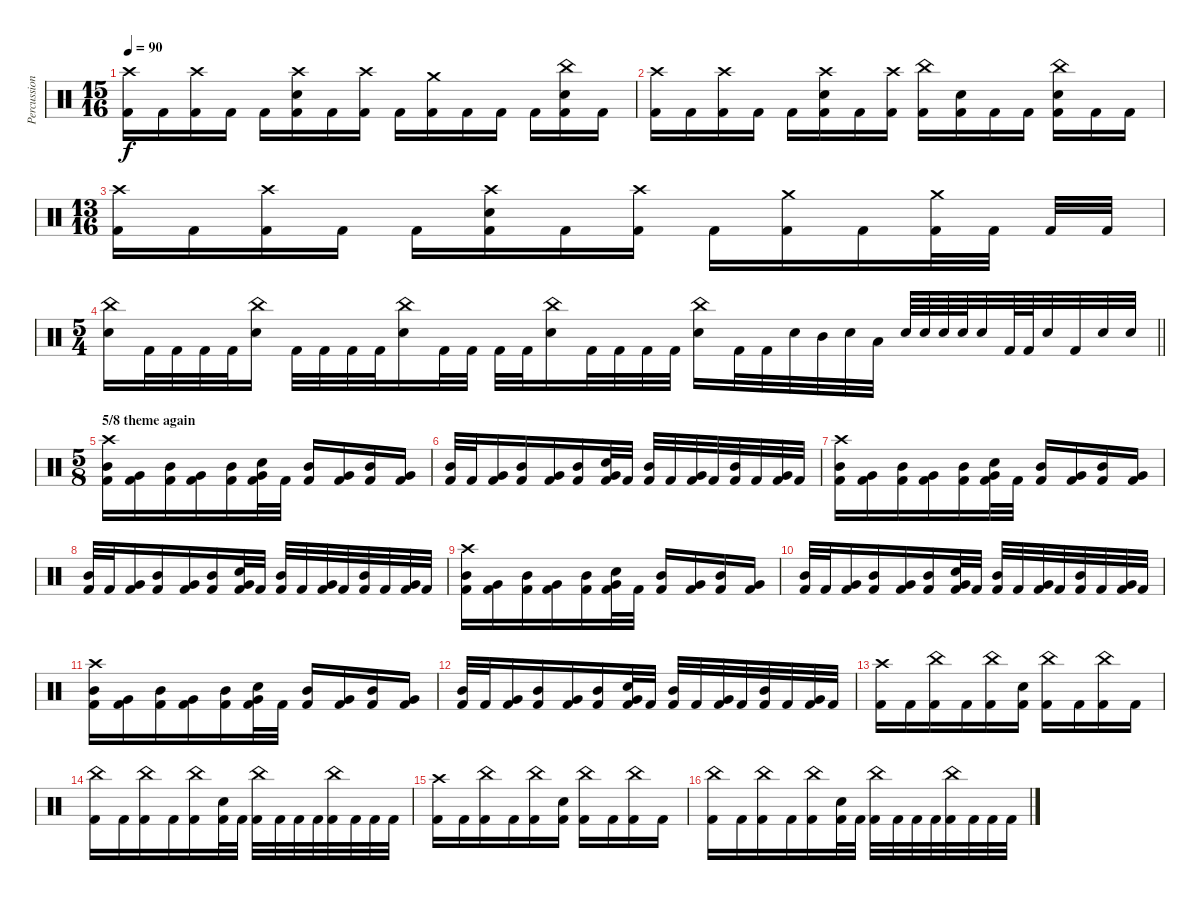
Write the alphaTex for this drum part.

\track ("Percussion" "Percussion") {instrument percussion}
\staff {score}
\articulation defaults
\ts (15 16)
\tempo 90
\clef neutral
\ks c
("Crash high (hit)" "Kick (hit) 2").16{dy f} "Kick (hit) 2".16 ("Crash high (hit)" "Kick (hit) 2").16 "Kick (hit) 2".16 "Kick (hit) 2".16 ("Crash high (hit)" "Electric Snare (hit)" "Kick (hit) 2").16 "Kick (hit) 2".16 ("Crash high (hit)" "Kick (hit) 2").16 "Kick (hit) 2".16 ("Crash medium (hit)" "Kick (hit) 2").16 "Kick (hit) 2".16 "Kick (hit) 2".16 "Kick (hit) 2".16 ("China (hit)" "Electric Snare (hit)" "Kick (hit) 2").16 "Kick (hit) 2".16 |
("Crash high (hit)" "Kick (hit) 2").16 "Kick (hit) 2".16 ("Crash high (hit)" "Kick (hit) 2").16 "Kick (hit) 2".16 "Kick (hit) 2".16 ("Crash high (hit)" "Electric Snare (hit)" "Kick (hit) 2").16 "Kick (hit) 2".16 ("Crash high (hit)" "Kick (hit) 2").16 ("China (hit)" "Kick (hit) 2").16 ("Electric Snare (hit)" "Kick (hit) 2").16 "Kick (hit) 2".16 "Kick (hit) 2".16 ("China (hit)" "Electric Snare (hit)" "Kick (hit) 2").16 "Kick (hit) 2".16 "Kick (hit) 2".16 |
\ts (13 16)
("Crash high (hit)" "Kick (hit) 2").16 "Kick (hit) 2".16 ("Crash high (hit)" "Kick (hit) 2").16 "Kick (hit) 2".16 "Kick (hit) 2".16 ("Crash high (hit)" "Electric Snare (hit)" "Kick (hit) 2").16 "Kick (hit) 2".16 ("Crash high (hit)" "Kick (hit) 2").16 "Kick (hit) 2".16 ("Crash medium (hit)" "Kick (hit) 2").16 "Kick (hit) 2".16 ("Crash medium (hit)" "Kick (hit) 2").32 "Kick (hit) 2".32 "Kick (hit) 2".32 "Kick (hit) 2".32 |
\ts (5 4)
\barLineRight lightlight
("China (hit)" "Electric Snare (hit)").16 "Kick (hit) 2".32 "Kick (hit) 2".32 "Kick (hit) 2".32 "Kick (hit) 2".32 ("China (hit)" "Electric Snare (hit)").16 "Kick (hit) 2".32 "Kick (hit) 2".32 "Kick (hit) 2".32 "Kick (hit) 2".32 ("China (hit)" "Electric Snare (hit)").16 "Kick (hit) 2".32 "Kick (hit) 2".32 "Kick (hit) 2".32 "Kick (hit) 2".32 ("China (hit)" "Electric Snare (hit)").16 "Kick (hit) 2".32 "Kick (hit) 2".32 "Kick (hit) 2".32 "Kick (hit) 2".32 ("China (hit)" "Electric Snare (hit)").16 "Kick (hit) 2".32 "Kick (hit) 2".32 "Electric Snare (hit)".32 "Mid Tom (hit)".32 "Electric Snare (hit)".32 "Low Tom (hit)".32 "Electric Snare (hit)".64 "Electric Snare (hit)".64 "Electric Snare (hit)".64 "Electric Snare (hit)".64 "Electric Snare (hit)".32 "Kick (hit) 2".64 "Kick (hit) 2".64 "Electric Snare (hit)".32 "Kick (hit) 2".32 "Electric Snare (hit)".32 "Electric Snare (hit)".32 |
\ts (5 8)
\section ("" "5/8 theme again")
("Crash high (hit)" "Mid Tom (hit)" "Kick (hit) 2").16 ("Very Low Tom (hit)" "Kick (hit) 2").16 ("Mid Tom (hit)" "Kick (hit) 2").16 ("Very Low Tom (hit)" "Kick (hit) 2").16 ("Mid Tom (hit)" "Kick (hit) 2").16 ("Very Low Tom (hit)" "Electric Snare (hit)" "Kick (hit) 2").32 "Kick (hit) 2".32 ("Mid Tom (hit)" "Kick (hit) 2").16 ("Very Low Tom (hit)" "Kick (hit) 2").16 ("Mid Tom (hit)" "Kick (hit) 2").16 ("Very Low Tom (hit)" "Kick (hit) 2").16 |
("Mid Tom (hit)" "Kick (hit) 2").32 "Kick (hit) 2".32 ("Very Low Tom (hit)" "Kick (hit) 2").16 ("Mid Tom (hit)" "Kick (hit) 2").16 ("Very Low Tom (hit)" "Kick (hit) 2").16 ("Mid Tom (hit)" "Kick (hit) 2").16 ("Very Low Tom (hit)" "Electric Snare (hit)" "Kick (hit) 2").32 "Kick (hit) 2".32 ("Mid Tom (hit)" "Kick (hit) 2").32 "Kick (hit) 2".32 ("Very Low Tom (hit)" "Kick (hit) 2").32 "Kick (hit) 2".32 ("Mid Tom (hit)" "Kick (hit) 2").32 "Kick (hit) 2".32 ("Very Low Tom (hit)" "Kick (hit) 2").32 "Kick (hit) 2".32 |
("Crash high (hit)" "Mid Tom (hit)" "Kick (hit) 2").16 ("Very Low Tom (hit)" "Kick (hit) 2").16 ("Mid Tom (hit)" "Kick (hit) 2").16 ("Very Low Tom (hit)" "Kick (hit) 2").16 ("Mid Tom (hit)" "Kick (hit) 2").16 ("Very Low Tom (hit)" "Electric Snare (hit)" "Kick (hit) 2").32 "Kick (hit) 2".32 ("Mid Tom (hit)" "Kick (hit) 2").16 ("Very Low Tom (hit)" "Kick (hit) 2").16 ("Mid Tom (hit)" "Kick (hit) 2").16 ("Very Low Tom (hit)" "Kick (hit) 2").16 |
("Mid Tom (hit)" "Kick (hit) 2").32 "Kick (hit) 2".32 ("Very Low Tom (hit)" "Kick (hit) 2").16 ("Mid Tom (hit)" "Kick (hit) 2").16 ("Very Low Tom (hit)" "Kick (hit) 2").16 ("Mid Tom (hit)" "Kick (hit) 2").16 ("Very Low Tom (hit)" "Electric Snare (hit)" "Kick (hit) 2").32 "Kick (hit) 2".32 ("Mid Tom (hit)" "Kick (hit) 2").32 "Kick (hit) 2".32 ("Very Low Tom (hit)" "Kick (hit) 2").32 "Kick (hit) 2".32 ("Mid Tom (hit)" "Kick (hit) 2").32 "Kick (hit) 2".32 ("Very Low Tom (hit)" "Kick (hit) 2").32 "Kick (hit) 2".32 |
("Crash high (hit)" "Mid Tom (hit)" "Kick (hit) 2").16 ("Very Low Tom (hit)" "Kick (hit) 2").16 ("Mid Tom (hit)" "Kick (hit) 2").16 ("Very Low Tom (hit)" "Kick (hit) 2").16 ("Mid Tom (hit)" "Kick (hit) 2").16 ("Very Low Tom (hit)" "Electric Snare (hit)" "Kick (hit) 2").32 "Kick (hit) 2".32 ("Mid Tom (hit)" "Kick (hit) 2").16 ("Very Low Tom (hit)" "Kick (hit) 2").16 ("Mid Tom (hit)" "Kick (hit) 2").16 ("Very Low Tom (hit)" "Kick (hit) 2").16 |
("Mid Tom (hit)" "Kick (hit) 2").32 "Kick (hit) 2".32 ("Very Low Tom (hit)" "Kick (hit) 2").16 ("Mid Tom (hit)" "Kick (hit) 2").16 ("Very Low Tom (hit)" "Kick (hit) 2").16 ("Mid Tom (hit)" "Kick (hit) 2").16 ("Very Low Tom (hit)" "Electric Snare (hit)" "Kick (hit) 2").32 "Kick (hit) 2".32 ("Mid Tom (hit)" "Kick (hit) 2").32 "Kick (hit) 2".32 ("Very Low Tom (hit)" "Kick (hit) 2").32 "Kick (hit) 2".32 ("Mid Tom (hit)" "Kick (hit) 2").32 "Kick (hit) 2".32 ("Very Low Tom (hit)" "Kick (hit) 2").32 "Kick (hit) 2".32 |
("Crash high (hit)" "Mid Tom (hit)" "Kick (hit) 2").16 ("Very Low Tom (hit)" "Kick (hit) 2").16 ("Mid Tom (hit)" "Kick (hit) 2").16 ("Very Low Tom (hit)" "Kick (hit) 2").16 ("Mid Tom (hit)" "Kick (hit) 2").16 ("Very Low Tom (hit)" "Electric Snare (hit)" "Kick (hit) 2").32 "Kick (hit) 2".32 ("Mid Tom (hit)" "Kick (hit) 2").16 ("Very Low Tom (hit)" "Kick (hit) 2").16 ("Mid Tom (hit)" "Kick (hit) 2").16 ("Very Low Tom (hit)" "Kick (hit) 2").16 |
("Mid Tom (hit)" "Kick (hit) 2").32 "Kick (hit) 2".32 ("Very Low Tom (hit)" "Kick (hit) 2").16 ("Mid Tom (hit)" "Kick (hit) 2").16 ("Very Low Tom (hit)" "Kick (hit) 2").16 ("Mid Tom (hit)" "Kick (hit) 2").16 ("Very Low Tom (hit)" "Electric Snare (hit)" "Kick (hit) 2").32 "Kick (hit) 2".32 ("Mid Tom (hit)" "Kick (hit) 2").32 "Kick (hit) 2".32 ("Very Low Tom (hit)" "Kick (hit) 2").32 "Kick (hit) 2".32 ("Mid Tom (hit)" "Kick (hit) 2").32 "Kick (hit) 2".32 ("Very Low Tom (hit)" "Kick (hit) 2").32 "Kick (hit) 2".32 |
("Crash high (hit)" "Kick (hit) 2").16 "Kick (hit) 2".16 ("China (hit)" "Kick (hit) 2").16 "Kick (hit) 2".16 ("China (hit)" "Kick (hit) 2").16 ("Electric Snare (hit)" "Kick (hit) 2").16 ("China (hit)" "Kick (hit) 2").16 "Kick (hit) 2".16 ("China (hit)" "Kick (hit) 2").16 "Kick (hit) 2".16 |
("China (hit)" "Kick (hit) 2").16 "Kick (hit) 2".16 ("China (hit)" "Kick (hit) 2").16 "Kick (hit) 2".16 ("China (hit)" "Kick (hit) 2").16 ("Electric Snare (hit)" "Kick (hit) 2").32 "Kick (hit) 2".32 ("China (hit)" "Kick (hit) 2").32 "Kick (hit) 2".32 "Kick (hit) 2".32 "Kick (hit) 2".32 ("China (hit)" "Kick (hit) 2").32 "Kick (hit) 2".32 "Kick (hit) 2".32 "Kick (hit) 2".32 |
("Crash high (hit)" "Kick (hit) 2").16 "Kick (hit) 2".16 ("China (hit)" "Kick (hit) 2").16 "Kick (hit) 2".16 ("China (hit)" "Kick (hit) 2").16 ("Electric Snare (hit)" "Kick (hit) 2").16 ("China (hit)" "Kick (hit) 2").16 "Kick (hit) 2".16 ("China (hit)" "Kick (hit) 2").16 "Kick (hit) 2".16 |
("China (hit)" "Kick (hit) 2").16 "Kick (hit) 2".16 ("China (hit)" "Kick (hit) 2").16 "Kick (hit) 2".16 ("China (hit)" "Kick (hit) 2").16 ("Electric Snare (hit)" "Kick (hit) 2").32 "Kick (hit) 2".32 ("China (hit)" "Kick (hit) 2").32 "Kick (hit) 2".32 "Kick (hit) 2".32 "Kick (hit) 2".32 ("China (hit)" "Kick (hit) 2").32 "Kick (hit) 2".32 "Kick (hit) 2".32 "Kick (hit) 2".32
